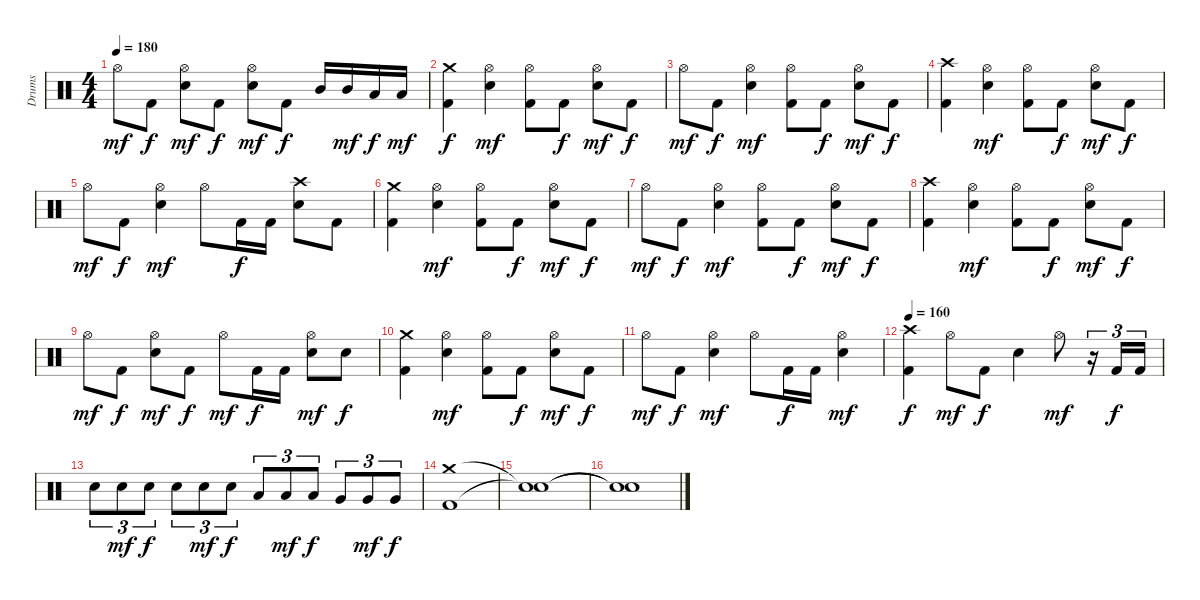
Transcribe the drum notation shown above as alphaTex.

\track ("Drums" "Drums") {instrument percussion}
\staff {score}
\articulation defaults
\ts (4 4)
\tempo 180
\clef neutral
\ks c "Hi-Hat (open)".8{dy mf} "Kick (hit) 2".8{dy f}
("Hi-Hat (open)" "Electric Snare (hit)").8{dy mf} "Kick (hit) 2".8{dy f} ("Hi-Hat (open)" "Electric Snare (hit)").8{dy mf} "Kick (hit) 2".8{dy f} "Mid Tom (hit)".16 "Mid Tom (hit)".16{dy mf} "Low Tom (hit)".16{dy f} "Low Tom (hit)".16{dy mf} |
("Kick (hit) 2" "Crash medium (hit)").4{dy f} ("Hi-Hat (open)" "Electric Snare (hit)").4{dy mf} ("Kick (hit) 2" "Hi-Hat (open)").8 "Kick (hit) 2".8{dy f} ("Hi-Hat (open)" "Electric Snare (hit)").8{dy mf} "Kick (hit) 2".8{dy f} |
"Hi-Hat (open)".8{dy mf} "Kick (hit) 2".8{dy f} ("Hi-Hat (open)" "Electric Snare (hit)").4{dy mf} ("Kick (hit) 2" "Hi-Hat (open)").8 "Kick (hit) 2".8{dy f} ("Hi-Hat (open)" "Electric Snare (hit)").8{dy mf} "Kick (hit) 2".8{dy f} |
("Kick (hit) 2" "Crash high (hit)").4 ("Hi-Hat (open)" "Electric Snare (hit)").4{dy mf} ("Kick (hit) 2" "Hi-Hat (open)").8 "Kick (hit) 2".8{dy f} ("Hi-Hat (open)" "Electric Snare (hit)").8{dy mf} "Kick (hit) 2".8{dy f} |
"Hi-Hat (open)".8{dy mf} "Kick (hit) 2".8{dy f} ("Hi-Hat (open)" "Electric Snare (hit)").4{dy mf} "Hi-Hat (open)".8 "Kick (hit) 2".16{dy f} "Kick (hit) 2".16 ("Crash high (hit)" "Electric Snare (hit)").8 "Kick (hit) 2".8 |
("Kick (hit) 2" "Crash medium (hit)").4 ("Hi-Hat (open)" "Electric Snare (hit)").4{dy mf} ("Kick (hit) 2" "Hi-Hat (open)").8 "Kick (hit) 2".8{dy f} ("Hi-Hat (open)" "Electric Snare (hit)").8{dy mf} "Kick (hit) 2".8{dy f} |
"Hi-Hat (open)".8{dy mf} "Kick (hit) 2".8{dy f} ("Hi-Hat (open)" "Electric Snare (hit)").4{dy mf} ("Kick (hit) 2" "Hi-Hat (open)").8 "Kick (hit) 2".8{dy f} ("Hi-Hat (open)" "Electric Snare (hit)").8{dy mf} "Kick (hit) 2".8{dy f} |
("Kick (hit) 2" "Crash high (hit)").4 ("Hi-Hat (open)" "Electric Snare (hit)").4{dy mf} ("Kick (hit) 2" "Hi-Hat (open)").8 "Kick (hit) 2".8{dy f} ("Hi-Hat (open)" "Electric Snare (hit)").8{dy mf} "Kick (hit) 2".8{dy f} |
"Hi-Hat (open)".8{dy mf} "Kick (hit) 2".8{dy f} ("Hi-Hat (open)" "Electric Snare (hit)").8{dy mf} "Kick (hit) 2".8{dy f} "Hi-Hat (open)".8{dy mf} "Kick (hit) 2".16{dy f} "Kick (hit) 2".16 ("Hi-Hat (open)" "Electric Snare (hit)").8{dy mf} "Electric Snare (hit)".8{dy f} |
("Kick (hit) 2" "Crash medium (hit)").4 ("Hi-Hat (open)" "Electric Snare (hit)").4{dy mf} ("Kick (hit) 2" "Hi-Hat (open)").8 "Kick (hit) 2".8{dy f} ("Hi-Hat (open)" "Electric Snare (hit)").8{dy mf} "Kick (hit) 2".8{dy f} |
"Hi-Hat (open)".8{dy mf} "Kick (hit) 2".8{dy f} ("Hi-Hat (open)" "Electric Snare (hit)").4{dy mf} "Hi-Hat (open)".8 "Kick (hit) 2".16{dy f} "Kick (hit) 2".16 ("Hi-Hat (open)" "Electric Snare (hit)").4{dy mf} |
\tempo 160
("Kick (hit) 2" "Crash high (hit)").4{dy f} "Hi-Hat (open)".8{dy mf} "Kick (hit) 2".8{dy f} "Electric Snare (hit)".4 "Hi-Hat (open)".8{dy mf} r.16{tu (3 2)} "Kick (hit) 2".16{tu (3 2) dy f} "Kick (hit) 2".16{tu (3 2)} |
"Electric Snare (hit)".8{tu (3 2)} "Electric Snare (hit)".8{tu (3 2) dy mf} "Electric Snare (hit)".8{tu (3 2) dy f} "Electric Snare (hit)".8{tu (3 2)} "Electric Snare (hit)".8{tu (3 2) dy mf} "Electric Snare (hit)".8{tu (3 2) dy f} "Low Tom (hit)".8{tu (3 2)} "Low Tom (hit)".8{tu (3 2) dy mf} "Low Tom (hit)".8{tu (3 2) dy f} "Very Low Tom (hit)".8{tu (3 2)} "Very Low Tom (hit)".8{tu (3 2) dy mf} "Very Low Tom (hit)".8{tu (3 2) dy f} |
("Kick (hit) 2" "Crash medium (hit)").1 |
("Snare (hit)"{t} "Snare (hit)"{t}).1 |
("Snare (hit)"{t} "Snare (hit)"{t}).1
